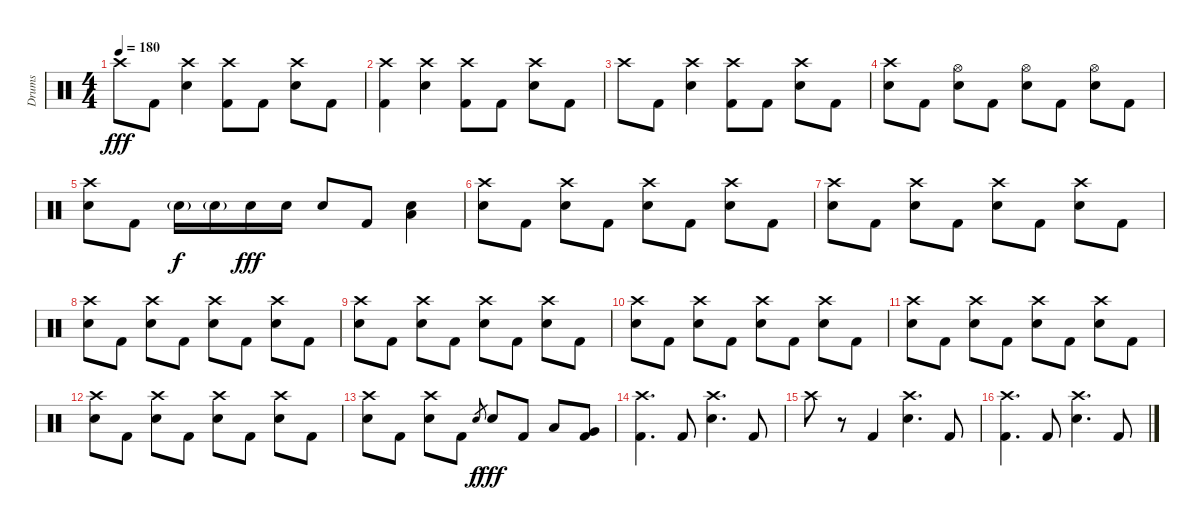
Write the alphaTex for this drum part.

\track ("Drums" "Drums") {instrument percussion}
\staff {score}
\articulation defaults
\ts (4 4)
\tempo 180
\clef neutral
\ks c "Crash high (hit)".8{dy fff} "Kick (hit) 2".8
("Crash high (hit)" "Electric Snare (hit)").4 ("Crash high (hit)" "Kick (hit) 2").8 "Kick (hit) 2".8 ("Crash high (hit)" "Electric Snare (hit)").8 "Kick (hit) 2".8 |
("Crash high (hit)" "Kick (hit) 2").4 ("Crash high (hit)" "Electric Snare (hit)").4 ("Crash high (hit)" "Kick (hit) 2").8 "Kick (hit) 2".8 ("Crash high (hit)" "Electric Snare (hit)").8 "Kick (hit) 2".8 |
"Crash high (hit)".8 "Kick (hit) 2".8 ("Crash high (hit)" "Electric Snare (hit)").4 ("Crash high (hit)" "Kick (hit) 2").8 "Kick (hit) 2".8 ("Crash high (hit)" "Electric Snare (hit)").8 "Kick (hit) 2".8 |
("Crash high (hit)" "Electric Snare (hit)").8 "Kick (hit) 2".8 ("Hi-Hat (open)" "Electric Snare (hit)").8 "Kick (hit) 2".8 ("Hi-Hat (open)" "Electric Snare (hit)").8 "Kick (hit) 2".8 ("Hi-Hat (open)" "Electric Snare (hit)").8 "Kick (hit) 2".8 |
("Crash high (hit)" "Electric Snare (hit)").8 "Kick (hit) 2".8 "Electric Snare (hit)"{g}.16{dy f} "Electric Snare (hit)"{g}.16 "Electric Snare (hit)".16{dy fff} "Electric Snare (hit)".16 "Electric Snare (hit)".8 "Kick (hit) 2".8 ("Electric Snare (hit)" "Low Tom (hit)").4 |
("Crash high (hit)" "Electric Snare (hit)").8 "Kick (hit) 2".8 ("Crash high (hit)" "Electric Snare (hit)").8 "Kick (hit) 2".8 ("Crash high (hit)" "Electric Snare (hit)").8 "Kick (hit) 2".8 ("Crash high (hit)" "Electric Snare (hit)").8 "Kick (hit) 2".8 |
("Crash high (hit)" "Electric Snare (hit)").8 "Kick (hit) 2".8 ("Crash high (hit)" "Electric Snare (hit)").8 "Kick (hit) 2".8 ("Crash high (hit)" "Electric Snare (hit)").8 "Kick (hit) 2".8 ("Crash high (hit)" "Electric Snare (hit)").8 "Kick (hit) 2".8 |
("Crash high (hit)" "Electric Snare (hit)").8 "Kick (hit) 2".8 ("Crash high (hit)" "Electric Snare (hit)").8 "Kick (hit) 2".8 ("Crash high (hit)" "Electric Snare (hit)").8 "Kick (hit) 2".8 ("Crash high (hit)" "Electric Snare (hit)").8 "Kick (hit) 2".8 |
("Crash high (hit)" "Electric Snare (hit)").8 "Kick (hit) 2".8 ("Crash high (hit)" "Electric Snare (hit)").8 "Kick (hit) 2".8 ("Crash high (hit)" "Electric Snare (hit)").8 "Kick (hit) 2".8 ("Crash high (hit)" "Electric Snare (hit)").8 "Kick (hit) 2".8 |
("Crash high (hit)" "Electric Snare (hit)").8 "Kick (hit) 2".8 ("Crash high (hit)" "Electric Snare (hit)").8 "Kick (hit) 2".8 ("Crash high (hit)" "Electric Snare (hit)").8 "Kick (hit) 2".8 ("Crash high (hit)" "Electric Snare (hit)").8 "Kick (hit) 2".8 |
("Crash high (hit)" "Electric Snare (hit)").8 "Kick (hit) 2".8 ("Crash high (hit)" "Electric Snare (hit)").8 "Kick (hit) 2".8 ("Crash high (hit)" "Electric Snare (hit)").8 "Kick (hit) 2".8 ("Crash high (hit)" "Electric Snare (hit)").8 "Kick (hit) 2".8 |
("Crash high (hit)" "Electric Snare (hit)").8 "Kick (hit) 2".8 ("Crash high (hit)" "Electric Snare (hit)").8 "Kick (hit) 2".8 ("Crash high (hit)" "Electric Snare (hit)").8 "Kick (hit) 2".8 ("Crash high (hit)" "Electric Snare (hit)").8 "Kick (hit) 2".8 |
("Crash high (hit)" "Electric Snare (hit)").8 "Kick (hit) 2".8 ("Crash high (hit)" "Electric Snare (hit)").8 "Kick (hit) 2".8 "Electric Snare (hit)".8{gr dy f} "Electric Snare (hit)".8{dy fff} "Kick (hit) 2".8 "Low Tom (hit)".8 ("Very Low Tom (hit)" "Kick (hit) 2").8 |
("Crash high (hit)" "Kick (hit) 2").4{d} "Kick (hit) 2".8 ("Crash high (hit)" "Electric Snare (hit)").4{d} "Kick (hit) 2".8 |
"Crash high (hit)".8 r.8 "Kick (hit) 2".4 ("Crash high (hit)" "Electric Snare (hit)").4{d} "Kick (hit) 2".8 |
("Crash high (hit)" "Kick (hit) 2").4{d} "Kick (hit) 2".8 ("Crash high (hit)" "Electric Snare (hit)").4{d} "Kick (hit) 2".8
